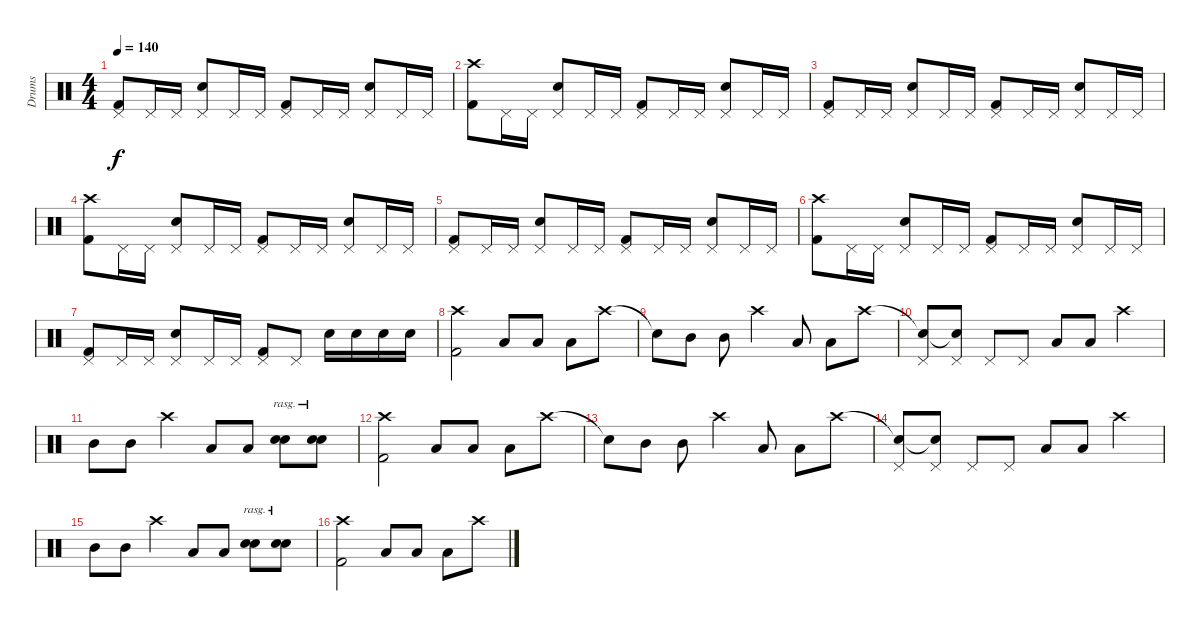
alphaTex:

\track ("Drums" "Drums") {instrument percussion}
\staff {score}
\articulation defaults
\ts (4 4)
\tempo 140
\clef neutral
\ks c
("Pedal Hi-Hat (hit)" "Kick (hit) 2").8{dy f} "Pedal Hi-Hat (hit)".16 "Pedal Hi-Hat (hit)".16 ("Pedal Hi-Hat (hit)" "Snare (hit) 2").8 "Pedal Hi-Hat (hit)".16 "Pedal Hi-Hat (hit)".16 ("Pedal Hi-Hat (hit)" "Kick (hit) 2").8 "Pedal Hi-Hat (hit)".16 "Pedal Hi-Hat (hit)".16 ("Pedal Hi-Hat (hit)" "Snare (hit) 2").8 "Pedal Hi-Hat (hit)".16 "Pedal Hi-Hat (hit)".16 |
("Crash high (hit)" "Kick (hit) 2").8 "Pedal Hi-Hat (hit)".16 "Pedal Hi-Hat (hit)".16 ("Pedal Hi-Hat (hit)" "Snare (hit) 2").8 "Pedal Hi-Hat (hit)".16 "Pedal Hi-Hat (hit)".16 ("Pedal Hi-Hat (hit)" "Kick (hit) 2").8 "Pedal Hi-Hat (hit)".16 "Pedal Hi-Hat (hit)".16 ("Pedal Hi-Hat (hit)" "Snare (hit) 2").8 "Pedal Hi-Hat (hit)".16 "Pedal Hi-Hat (hit)".16 |
("Pedal Hi-Hat (hit)" "Kick (hit) 2").8 "Pedal Hi-Hat (hit)".16 "Pedal Hi-Hat (hit)".16 ("Pedal Hi-Hat (hit)" "Snare (hit) 2").8 "Pedal Hi-Hat (hit)".16 "Pedal Hi-Hat (hit)".16 ("Pedal Hi-Hat (hit)" "Kick (hit) 2").8 "Pedal Hi-Hat (hit)".16 "Pedal Hi-Hat (hit)".16 ("Pedal Hi-Hat (hit)" "Snare (hit) 2").8 "Pedal Hi-Hat (hit)".16 "Pedal Hi-Hat (hit)".16 |
("Crash high (hit)" "Kick (hit) 2").8 "Pedal Hi-Hat (hit)".16 "Pedal Hi-Hat (hit)".16 ("Pedal Hi-Hat (hit)" "Snare (hit) 2").8 "Pedal Hi-Hat (hit)".16 "Pedal Hi-Hat (hit)".16 ("Pedal Hi-Hat (hit)" "Kick (hit) 2").8 "Pedal Hi-Hat (hit)".16 "Pedal Hi-Hat (hit)".16 ("Pedal Hi-Hat (hit)" "Snare (hit) 2").8 "Pedal Hi-Hat (hit)".16 "Pedal Hi-Hat (hit)".16 |
("Pedal Hi-Hat (hit)" "Kick (hit) 2").8 "Pedal Hi-Hat (hit)".16 "Pedal Hi-Hat (hit)".16 ("Pedal Hi-Hat (hit)" "Snare (hit) 2").8 "Pedal Hi-Hat (hit)".16 "Pedal Hi-Hat (hit)".16 ("Pedal Hi-Hat (hit)" "Kick (hit) 2").8 "Pedal Hi-Hat (hit)".16 "Pedal Hi-Hat (hit)".16 ("Pedal Hi-Hat (hit)" "Snare (hit) 2").8 "Pedal Hi-Hat (hit)".16 "Pedal Hi-Hat (hit)".16 |
("Crash high (hit)" "Kick (hit) 2").8 "Pedal Hi-Hat (hit)".16 "Pedal Hi-Hat (hit)".16 ("Pedal Hi-Hat (hit)" "Snare (hit) 2").8 "Pedal Hi-Hat (hit)".16 "Pedal Hi-Hat (hit)".16 ("Pedal Hi-Hat (hit)" "Kick (hit) 2").8 "Pedal Hi-Hat (hit)".16 "Pedal Hi-Hat (hit)".16 ("Pedal Hi-Hat (hit)" "Snare (hit) 2").8 "Pedal Hi-Hat (hit)".16 "Pedal Hi-Hat (hit)".16 |
("Pedal Hi-Hat (hit)" "Kick (hit) 2").8 "Pedal Hi-Hat (hit)".16 "Pedal Hi-Hat (hit)".16 ("Pedal Hi-Hat (hit)" "Snare (hit) 2").8 "Pedal Hi-Hat (hit)".16 "Pedal Hi-Hat (hit)".16 ("Pedal Hi-Hat (hit)" "Kick (hit) 2").8 "Pedal Hi-Hat (hit)".8 "Snare (hit) 2".16 "Snare (hit) 2".16 "Snare (hit) 2".16 "Snare (hit) 2".16 |
("Crash high (hit)" "Kick (hit) 2").2 "Low Tom (hit)".8 "Low Tom (hit)".8 "Low Tom (hit)".8 "Crash high (hit)".8 |
"Snare (hit)"{t}.8 "Mid Tom (hit)".8 "Mid Tom (hit)".8 "Crash high (hit)".4 "Low Floor Tom (hit)".8 "Low Floor Tom (hit)".8 "Crash high (hit)".8 |
("Snare (hit)"{t} "Pedal Hi-Hat (hit)").8 ("Snare (hit)"{t} "Pedal Hi-Hat (hit)").8 "Pedal Hi-Hat (hit)".8 "Pedal Hi-Hat (hit)".8 "Low Tom (hit)".8 "Low Tom (hit)".8 "Crash high (hit)".4 |
"Mid Tom (hit)".8 "Mid Tom (hit)".8 "Crash high (hit)".4 "Low Floor Tom (hit)".8 "Low Floor Tom (hit)".8 ("Snare (hit) 2" "Snare (hit) 2").8{bu 240 rasg ii} ("Snare (hit) 2" "Snare (hit) 2").8{bu 240 rasg ii} |
("Crash high (hit)" "Kick (hit) 2").2 "Low Tom (hit)".8 "Low Tom (hit)".8 "Low Tom (hit)".8 "Crash high (hit)".8 |
"Snare (hit)"{t}.8 "Mid Tom (hit)".8 "Mid Tom (hit)".8 "Crash high (hit)".4 "Low Floor Tom (hit)".8 "Low Floor Tom (hit)".8 "Crash high (hit)".8 |
("Snare (hit)"{t} "Pedal Hi-Hat (hit)").8 ("Snare (hit)"{t} "Pedal Hi-Hat (hit)").8 "Pedal Hi-Hat (hit)".8 "Pedal Hi-Hat (hit)".8 "Low Tom (hit)".8 "Low Tom (hit)".8 "Crash high (hit)".4 |
"Mid Tom (hit)".8 "Mid Tom (hit)".8 "Crash high (hit)".4 "Low Floor Tom (hit)".8 "Low Floor Tom (hit)".8 ("Snare (hit) 2" "Snare (hit) 2").8{bu 240 rasg ii} ("Snare (hit) 2" "Snare (hit) 2").8{bu 240 rasg ii} |
("Crash high (hit)" "Kick (hit) 2").2 "Low Tom (hit)".8 "Low Tom (hit)".8 "Low Tom (hit)".8 "Crash high (hit)".8
